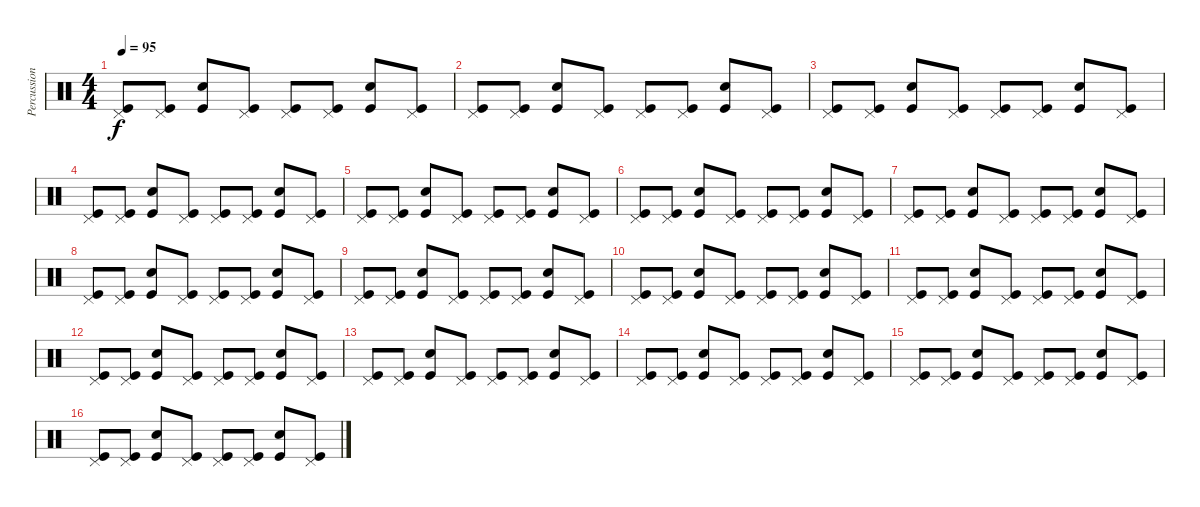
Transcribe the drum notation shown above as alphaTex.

\track ("Percussion" "Percussion") {instrument percussion}
\staff {score}
\articulation defaults
\ts (4 4)
\tempo 95
\clef neutral
\ks c
("Pedal Hi-Hat (hit)" "Kick (hit)").8{dy f} ("Pedal Hi-Hat (hit)" "Kick (hit)").8 ("Electric Snare (hit)" "Kick (hit)").8 ("Pedal Hi-Hat (hit)" "Kick (hit)").8 ("Pedal Hi-Hat (hit)" "Kick (hit)").8 ("Pedal Hi-Hat (hit)" "Kick (hit)").8 ("Electric Snare (hit)" "Kick (hit)").8 ("Pedal Hi-Hat (hit)" "Kick (hit)").8 |
("Pedal Hi-Hat (hit)" "Kick (hit)").8 ("Pedal Hi-Hat (hit)" "Kick (hit)").8 ("Electric Snare (hit)" "Kick (hit)").8 ("Pedal Hi-Hat (hit)" "Kick (hit)").8 ("Pedal Hi-Hat (hit)" "Kick (hit)").8 ("Pedal Hi-Hat (hit)" "Kick (hit)").8 ("Electric Snare (hit)" "Kick (hit)").8 ("Pedal Hi-Hat (hit)" "Kick (hit)").8 |
("Pedal Hi-Hat (hit)" "Kick (hit)").8 ("Pedal Hi-Hat (hit)" "Kick (hit)").8 ("Electric Snare (hit)" "Kick (hit)").8 ("Pedal Hi-Hat (hit)" "Kick (hit)").8 ("Pedal Hi-Hat (hit)" "Kick (hit)").8 ("Pedal Hi-Hat (hit)" "Kick (hit)").8 ("Electric Snare (hit)" "Kick (hit)").8 ("Pedal Hi-Hat (hit)" "Kick (hit)").8 |
("Pedal Hi-Hat (hit)" "Kick (hit)").8 ("Pedal Hi-Hat (hit)" "Kick (hit)").8 ("Electric Snare (hit)" "Kick (hit)").8 ("Pedal Hi-Hat (hit)" "Kick (hit)").8 ("Pedal Hi-Hat (hit)" "Kick (hit)").8 ("Pedal Hi-Hat (hit)" "Kick (hit)").8 ("Electric Snare (hit)" "Kick (hit)").8 ("Pedal Hi-Hat (hit)" "Kick (hit)").8 |
("Pedal Hi-Hat (hit)" "Kick (hit)").8 ("Pedal Hi-Hat (hit)" "Kick (hit)").8 ("Electric Snare (hit)" "Kick (hit)").8 ("Pedal Hi-Hat (hit)" "Kick (hit)").8 ("Pedal Hi-Hat (hit)" "Kick (hit)").8 ("Pedal Hi-Hat (hit)" "Kick (hit)").8 ("Electric Snare (hit)" "Kick (hit)").8 ("Pedal Hi-Hat (hit)" "Kick (hit)").8 |
("Pedal Hi-Hat (hit)" "Kick (hit)").8 ("Pedal Hi-Hat (hit)" "Kick (hit)").8 ("Electric Snare (hit)" "Kick (hit)").8 ("Pedal Hi-Hat (hit)" "Kick (hit)").8 ("Pedal Hi-Hat (hit)" "Kick (hit)").8 ("Pedal Hi-Hat (hit)" "Kick (hit)").8 ("Electric Snare (hit)" "Kick (hit)").8 ("Pedal Hi-Hat (hit)" "Kick (hit)").8 |
("Pedal Hi-Hat (hit)" "Kick (hit)").8 ("Pedal Hi-Hat (hit)" "Kick (hit)").8 ("Electric Snare (hit)" "Kick (hit)").8 ("Pedal Hi-Hat (hit)" "Kick (hit)").8 ("Pedal Hi-Hat (hit)" "Kick (hit)").8 ("Pedal Hi-Hat (hit)" "Kick (hit)").8 ("Electric Snare (hit)" "Kick (hit)").8 ("Pedal Hi-Hat (hit)" "Kick (hit)").8 |
("Pedal Hi-Hat (hit)" "Kick (hit)").8 ("Pedal Hi-Hat (hit)" "Kick (hit)").8 ("Electric Snare (hit)" "Kick (hit)").8 ("Pedal Hi-Hat (hit)" "Kick (hit)").8 ("Pedal Hi-Hat (hit)" "Kick (hit)").8 ("Pedal Hi-Hat (hit)" "Kick (hit)").8 ("Electric Snare (hit)" "Kick (hit)").8 ("Pedal Hi-Hat (hit)" "Kick (hit)").8 |
("Pedal Hi-Hat (hit)" "Kick (hit)").8 ("Pedal Hi-Hat (hit)" "Kick (hit)").8 ("Electric Snare (hit)" "Kick (hit)").8 ("Pedal Hi-Hat (hit)" "Kick (hit)").8 ("Pedal Hi-Hat (hit)" "Kick (hit)").8 ("Pedal Hi-Hat (hit)" "Kick (hit)").8 ("Electric Snare (hit)" "Kick (hit)").8 ("Pedal Hi-Hat (hit)" "Kick (hit)").8 |
("Pedal Hi-Hat (hit)" "Kick (hit)").8 ("Pedal Hi-Hat (hit)" "Kick (hit)").8 ("Electric Snare (hit)" "Kick (hit)").8 ("Pedal Hi-Hat (hit)" "Kick (hit)").8 ("Pedal Hi-Hat (hit)" "Kick (hit)").8 ("Pedal Hi-Hat (hit)" "Kick (hit)").8 ("Electric Snare (hit)" "Kick (hit)").8 ("Pedal Hi-Hat (hit)" "Kick (hit)").8 |
("Pedal Hi-Hat (hit)" "Kick (hit)").8 ("Pedal Hi-Hat (hit)" "Kick (hit)").8 ("Electric Snare (hit)" "Kick (hit)").8 ("Pedal Hi-Hat (hit)" "Kick (hit)").8 ("Pedal Hi-Hat (hit)" "Kick (hit)").8 ("Pedal Hi-Hat (hit)" "Kick (hit)").8 ("Electric Snare (hit)" "Kick (hit)").8 ("Pedal Hi-Hat (hit)" "Kick (hit)").8 |
("Pedal Hi-Hat (hit)" "Kick (hit)").8 ("Pedal Hi-Hat (hit)" "Kick (hit)").8 ("Electric Snare (hit)" "Kick (hit)").8 ("Pedal Hi-Hat (hit)" "Kick (hit)").8 ("Pedal Hi-Hat (hit)" "Kick (hit)").8 ("Pedal Hi-Hat (hit)" "Kick (hit)").8 ("Electric Snare (hit)" "Kick (hit)").8 ("Pedal Hi-Hat (hit)" "Kick (hit)").8 |
("Pedal Hi-Hat (hit)" "Kick (hit)").8 ("Pedal Hi-Hat (hit)" "Kick (hit)").8 ("Electric Snare (hit)" "Kick (hit)").8 ("Pedal Hi-Hat (hit)" "Kick (hit)").8 ("Pedal Hi-Hat (hit)" "Kick (hit)").8 ("Pedal Hi-Hat (hit)" "Kick (hit)").8 ("Electric Snare (hit)" "Kick (hit)").8 ("Pedal Hi-Hat (hit)" "Kick (hit)").8 |
("Pedal Hi-Hat (hit)" "Kick (hit)").8 ("Pedal Hi-Hat (hit)" "Kick (hit)").8 ("Electric Snare (hit)" "Kick (hit)").8 ("Pedal Hi-Hat (hit)" "Kick (hit)").8 ("Pedal Hi-Hat (hit)" "Kick (hit)").8 ("Pedal Hi-Hat (hit)" "Kick (hit)").8 ("Electric Snare (hit)" "Kick (hit)").8 ("Pedal Hi-Hat (hit)" "Kick (hit)").8 |
("Pedal Hi-Hat (hit)" "Kick (hit)").8 ("Pedal Hi-Hat (hit)" "Kick (hit)").8 ("Electric Snare (hit)" "Kick (hit)").8 ("Pedal Hi-Hat (hit)" "Kick (hit)").8 ("Pedal Hi-Hat (hit)" "Kick (hit)").8 ("Pedal Hi-Hat (hit)" "Kick (hit)").8 ("Electric Snare (hit)" "Kick (hit)").8 ("Pedal Hi-Hat (hit)" "Kick (hit)").8 |
("Pedal Hi-Hat (hit)" "Kick (hit)").8 ("Pedal Hi-Hat (hit)" "Kick (hit)").8 ("Electric Snare (hit)" "Kick (hit)").8 ("Pedal Hi-Hat (hit)" "Kick (hit)").8 ("Pedal Hi-Hat (hit)" "Kick (hit)").8 ("Pedal Hi-Hat (hit)" "Kick (hit)").8 ("Electric Snare (hit)" "Kick (hit)").8 ("Pedal Hi-Hat (hit)" "Kick (hit)").8
